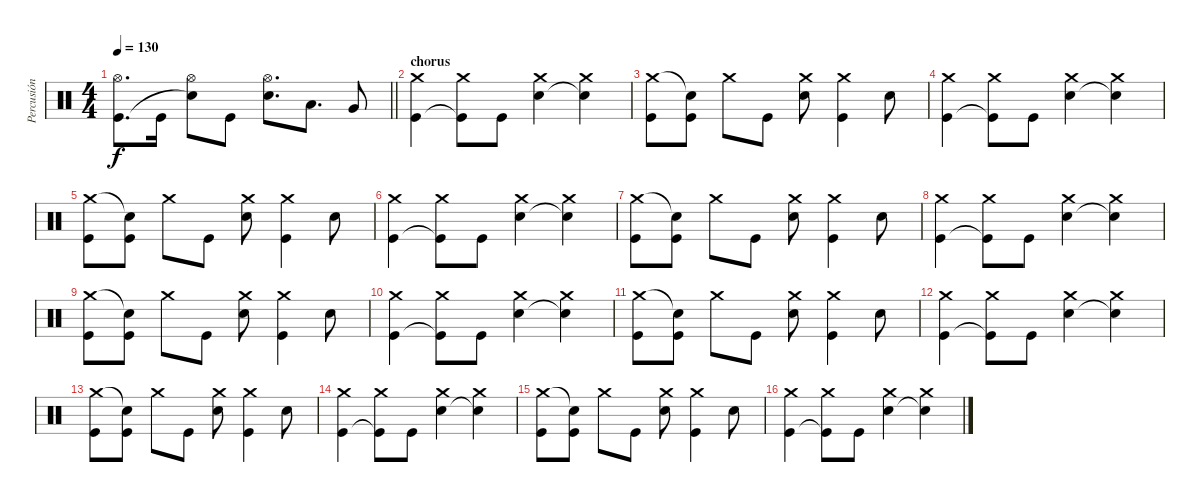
\track ("Percusión" "Percusión") {instrument percussion}
\staff {score}
\articulation defaults
\ts (4 4)
\tempo 130
\clef neutral
\barLineRight lightlight
\ks c
("Hi-Hat (open)" "Kick (hit)").8{d dy f} "Kick (hit)".16 ("Hi-Hat (open)" "Snare (hit)"{t}).8 "Kick (hit)".8 ("Hi-Hat (open)" "Electric Snare (hit)").8{d} "Low Tom (hit)".8{d} "Very Low Tom (hit)".8 |
\section ("" "chorus")
("Crash medium (hit)" "Kick (hit)").4 ("Crash medium (hit)" "Kick (hit)"{t}).8 "Kick (hit)".8 ("Crash medium (hit)" "Electric Snare (hit)").4 ("Crash medium (hit)" "Snare (hit)"{t}).4 |
("Crash medium (hit)" "Kick (hit)").8 ("Snare (hit)"{t} "Kick (hit)").8 "Crash medium (hit)".8 "Kick (hit)".8 ("Crash medium (hit)" "Electric Snare (hit)").8 ("Crash medium (hit)" "Kick (hit)").4 "Electric Snare (hit)".8 |
("Crash medium (hit)" "Kick (hit)").4 ("Crash medium (hit)" "Kick (hit)"{t}).8 "Kick (hit)".8 ("Crash medium (hit)" "Electric Snare (hit)").4 ("Crash medium (hit)" "Snare (hit)"{t}).4 |
("Crash medium (hit)" "Kick (hit)").8 ("Snare (hit)"{t} "Kick (hit)").8 "Crash medium (hit)".8 "Kick (hit)".8 ("Crash medium (hit)" "Electric Snare (hit)").8 ("Crash medium (hit)" "Kick (hit)").4 "Electric Snare (hit)".8 |
("Crash medium (hit)" "Kick (hit)").4 ("Crash medium (hit)" "Kick (hit)"{t}).8 "Kick (hit)".8 ("Crash medium (hit)" "Electric Snare (hit)").4 ("Crash medium (hit)" "Snare (hit)"{t}).4 |
("Crash medium (hit)" "Kick (hit)").8 ("Snare (hit)"{t} "Kick (hit)").8 "Crash medium (hit)".8 "Kick (hit)".8 ("Crash medium (hit)" "Electric Snare (hit)").8 ("Crash medium (hit)" "Kick (hit)").4 "Electric Snare (hit)".8 |
("Crash medium (hit)" "Kick (hit)").4 ("Crash medium (hit)" "Kick (hit)"{t}).8 "Kick (hit)".8 ("Crash medium (hit)" "Electric Snare (hit)").4 ("Crash medium (hit)" "Snare (hit)"{t}).4 |
("Crash medium (hit)" "Kick (hit)").8 ("Snare (hit)"{t} "Kick (hit)").8 "Crash medium (hit)".8 "Kick (hit)".8 ("Crash medium (hit)" "Electric Snare (hit)").8 ("Crash medium (hit)" "Kick (hit)").4 "Electric Snare (hit)".8 |
("Crash medium (hit)" "Kick (hit)").4 ("Crash medium (hit)" "Kick (hit)"{t}).8 "Kick (hit)".8 ("Crash medium (hit)" "Electric Snare (hit)").4 ("Crash medium (hit)" "Snare (hit)"{t}).4 |
("Crash medium (hit)" "Kick (hit)").8 ("Snare (hit)"{t} "Kick (hit)").8 "Crash medium (hit)".8 "Kick (hit)".8 ("Crash medium (hit)" "Electric Snare (hit)").8 ("Crash medium (hit)" "Kick (hit)").4 "Electric Snare (hit)".8 |
("Crash medium (hit)" "Kick (hit)").4 ("Crash medium (hit)" "Kick (hit)"{t}).8 "Kick (hit)".8 ("Crash medium (hit)" "Electric Snare (hit)").4 ("Crash medium (hit)" "Snare (hit)"{t}).4 |
("Crash medium (hit)" "Kick (hit)").8 ("Snare (hit)"{t} "Kick (hit)").8 "Crash medium (hit)".8 "Kick (hit)".8 ("Crash medium (hit)" "Electric Snare (hit)").8 ("Crash medium (hit)" "Kick (hit)").4 "Electric Snare (hit)".8 |
("Crash medium (hit)" "Kick (hit)").4 ("Crash medium (hit)" "Kick (hit)"{t}).8 "Kick (hit)".8 ("Crash medium (hit)" "Electric Snare (hit)").4 ("Crash medium (hit)" "Snare (hit)"{t}).4 |
("Crash medium (hit)" "Kick (hit)").8 ("Snare (hit)"{t} "Kick (hit)").8 "Crash medium (hit)".8 "Kick (hit)".8 ("Crash medium (hit)" "Electric Snare (hit)").8 ("Crash medium (hit)" "Kick (hit)").4 "Electric Snare (hit)".8 |
("Crash medium (hit)" "Kick (hit)").4 ("Crash medium (hit)" "Kick (hit)"{t}).8 "Kick (hit)".8 ("Crash medium (hit)" "Electric Snare (hit)").4 ("Crash medium (hit)" "Snare (hit)"{t}).4
